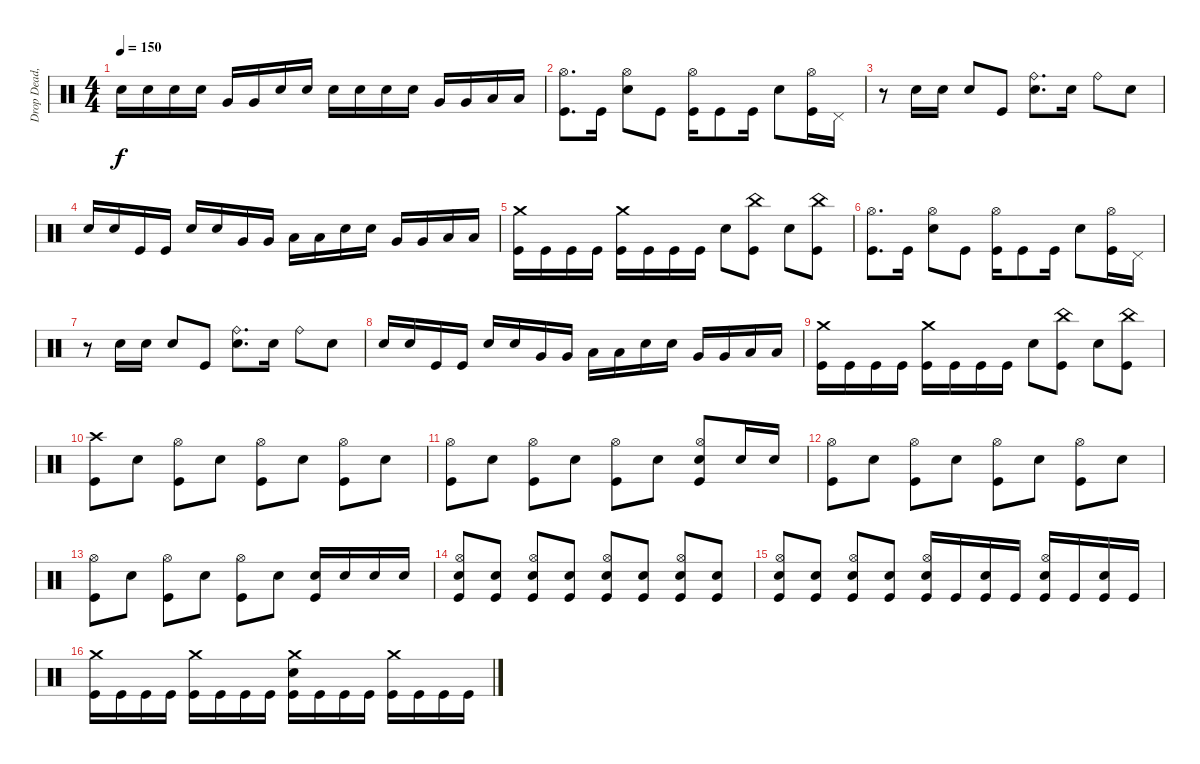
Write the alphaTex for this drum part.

\track ("Drop Dead, Johnny" "Drop Dead,") {instrument percussion}
\staff {score}
\articulation defaults
\ts (4 4)
\tempo 150
\clef neutral
\ks c "Electric Snare (hit)".16{dy f} "Electric Snare (hit)".16 "Electric Snare (hit)".16 "Electric Snare (hit)".16 "Very Low Tom (hit)".16 "Very Low Tom (hit)".16 "Electric Snare (hit)".16 "Electric Snare (hit)".16 "Electric Snare (hit)".16 "Electric Snare (hit)".16 "Electric Snare (hit)".16 "Electric Snare (hit)".16 "Very Low Tom (hit)".16 "Very Low Tom (hit)".16 "Low Floor Tom (hit)".16 "Low Floor Tom (hit)".16
|
("Hi-Hat (open)" "Kick (hit)").8{d} "Kick (hit)".16 ("Hi-Hat (open)" "Electric Snare (hit)").8 "Kick (hit)".8 ("Hi-Hat (open)" "Kick (hit)").16 "Kick (hit)".8 "Kick (hit)".16 "Electric Snare (hit)".8 ("Hi-Hat (open)" "Kick (hit)").16 "Pedal Hi-Hat (hit)".16 |
r.8 "Electric Snare (hit)".16 "Electric Snare (hit)".16 "Electric Snare (hit)".8 "Kick (hit)".8 ("Ride (bell)" "Electric Snare (hit)").8{d} "Electric Snare (hit)".16 "Ride (bell)".8 "Electric Snare (hit)".8 |
"Electric Snare (hit)".16 "Electric Snare (hit)".16 "Kick (hit)".16 "Kick (hit)".16 "Electric Snare (hit)".16 "Electric Snare (hit)".16 "Very Low Tom (hit)".16 "Very Low Tom (hit)".16 "Low Floor Tom (hit)".16 "Low Floor Tom (hit)".16 "Electric Snare (hit)".16 "Electric Snare (hit)".16 "Very Low Tom (hit)".16 "Very Low Tom (hit)".16 "Low Floor Tom (hit)".16 "Low Floor Tom (hit)".16 |
("Crash medium (hit)" "Kick (hit)").16 "Kick (hit)".16 "Kick (hit)".16 "Kick (hit)".16 ("Crash medium (hit)" "Kick (hit)").16 "Kick (hit)".16 "Kick (hit)".16 "Kick (hit)".16 "Electric Snare (hit)".8 ("China (hit)" "Kick (hit)").8 "Electric Snare (hit)".8 ("China (hit)" "Kick (hit)").8 |
("Hi-Hat (open)" "Kick (hit)").8{d} "Kick (hit)".16 ("Hi-Hat (open)" "Electric Snare (hit)").8 "Kick (hit)".8 ("Hi-Hat (open)" "Kick (hit)").16 "Kick (hit)".8 "Kick (hit)".16 "Electric Snare (hit)".8 ("Hi-Hat (open)" "Kick (hit)").16 "Pedal Hi-Hat (hit)".16 |
r.8 "Electric Snare (hit)".16 "Electric Snare (hit)".16 "Electric Snare (hit)".8 "Kick (hit)".8 ("Ride (bell)" "Electric Snare (hit)").8{d} "Electric Snare (hit)".16 "Ride (bell)".8 "Electric Snare (hit)".8 |
"Electric Snare (hit)".16 "Electric Snare (hit)".16 "Kick (hit)".16 "Kick (hit)".16 "Electric Snare (hit)".16 "Electric Snare (hit)".16 "Very Low Tom (hit)".16 "Very Low Tom (hit)".16 "Low Floor Tom (hit)".16 "Low Floor Tom (hit)".16 "Electric Snare (hit)".16 "Electric Snare (hit)".16 "Very Low Tom (hit)".16 "Very Low Tom (hit)".16 "Low Floor Tom (hit)".16 "Low Floor Tom (hit)".16 |
("Crash medium (hit)" "Kick (hit)").16 "Kick (hit)".16 "Kick (hit)".16 "Kick (hit)".16 ("Crash medium (hit)" "Kick (hit)").16 "Kick (hit)".16 "Kick (hit)".16 "Kick (hit)".16 "Electric Snare (hit)".8 ("China (hit)" "Kick (hit)").8 "Electric Snare (hit)".8 ("China (hit)" "Kick (hit)").8 |
("Crash high (hit)" "Kick (hit)").8 "Electric Snare (hit)".8 ("Hi-Hat (open)" "Kick (hit)").8 "Electric Snare (hit)".8 ("Hi-Hat (open)" "Kick (hit)").8 "Electric Snare (hit)".8 ("Hi-Hat (open)" "Kick (hit)").8 "Electric Snare (hit)".8 |
("Hi-Hat (open)" "Kick (hit)").8 "Electric Snare (hit)".8 ("Hi-Hat (open)" "Kick (hit)").8 "Electric Snare (hit)".8 ("Hi-Hat (open)" "Kick (hit)").8 "Electric Snare (hit)".8 ("Hi-Hat (open)" "Electric Snare (hit)" "Kick (hit)").8 "Electric Snare (hit)".16 "Electric Snare (hit)".16 |
("Hi-Hat (open)" "Kick (hit)").8 "Electric Snare (hit)".8 ("Hi-Hat (open)" "Kick (hit)").8 "Electric Snare (hit)".8 ("Hi-Hat (open)" "Kick (hit)").8 "Electric Snare (hit)".8 ("Hi-Hat (open)" "Kick (hit)").8 "Electric Snare (hit)".8 |
("Hi-Hat (open)" "Kick (hit)").8 "Electric Snare (hit)".8 ("Hi-Hat (open)" "Kick (hit)").8 "Electric Snare (hit)".8 ("Hi-Hat (open)" "Kick (hit)").8 "Electric Snare (hit)".8 ("Electric Snare (hit)" "Kick (hit)").16 "Electric Snare (hit)".16 "Electric Snare (hit)".16 "Electric Snare (hit)".16 |
("Hi-Hat (open)" "Electric Snare (hit)" "Kick (hit)").8 ("Electric Snare (hit)" "Kick (hit)").8 ("Hi-Hat (open)" "Electric Snare (hit)" "Kick (hit)").8 ("Electric Snare (hit)" "Kick (hit)").8 ("Hi-Hat (open)" "Electric Snare (hit)" "Kick (hit)").8 ("Electric Snare (hit)" "Kick (hit)").8 ("Hi-Hat (open)" "Electric Snare (hit)" "Kick (hit)").8 ("Electric Snare (hit)" "Kick (hit)").8 |
("Hi-Hat (open)" "Electric Snare (hit)" "Kick (hit)").8 ("Electric Snare (hit)" "Kick (hit)").8 ("Hi-Hat (open)" "Electric Snare (hit)" "Kick (hit)").8 ("Electric Snare (hit)" "Kick (hit)").8 ("Hi-Hat (open)" "Electric Snare (hit)" "Kick (hit)").16 "Kick (hit)".16 ("Electric Snare (hit)" "Kick (hit)").16 "Kick (hit)".16 ("Hi-Hat (open)" "Electric Snare (hit)" "Kick (hit)").16 "Kick (hit)".16 ("Electric Snare (hit)" "Kick (hit)").16 "Kick (hit)".16 |
("Crash medium (hit)" "Kick (hit)").16 "Kick (hit)".16 "Kick (hit)".16 "Kick (hit)".16 ("Crash medium (hit)" "Kick (hit)").16 "Kick (hit)".16 "Kick (hit)".16 "Kick (hit)".16 ("Crash medium (hit)" "Electric Snare (hit)" "Kick (hit)").16 "Kick (hit)".16 "Kick (hit)".16 "Kick (hit)".16 ("Crash medium (hit)" "Kick (hit)").16 "Kick (hit)".16 "Kick (hit)".16 "Kick (hit)".16
